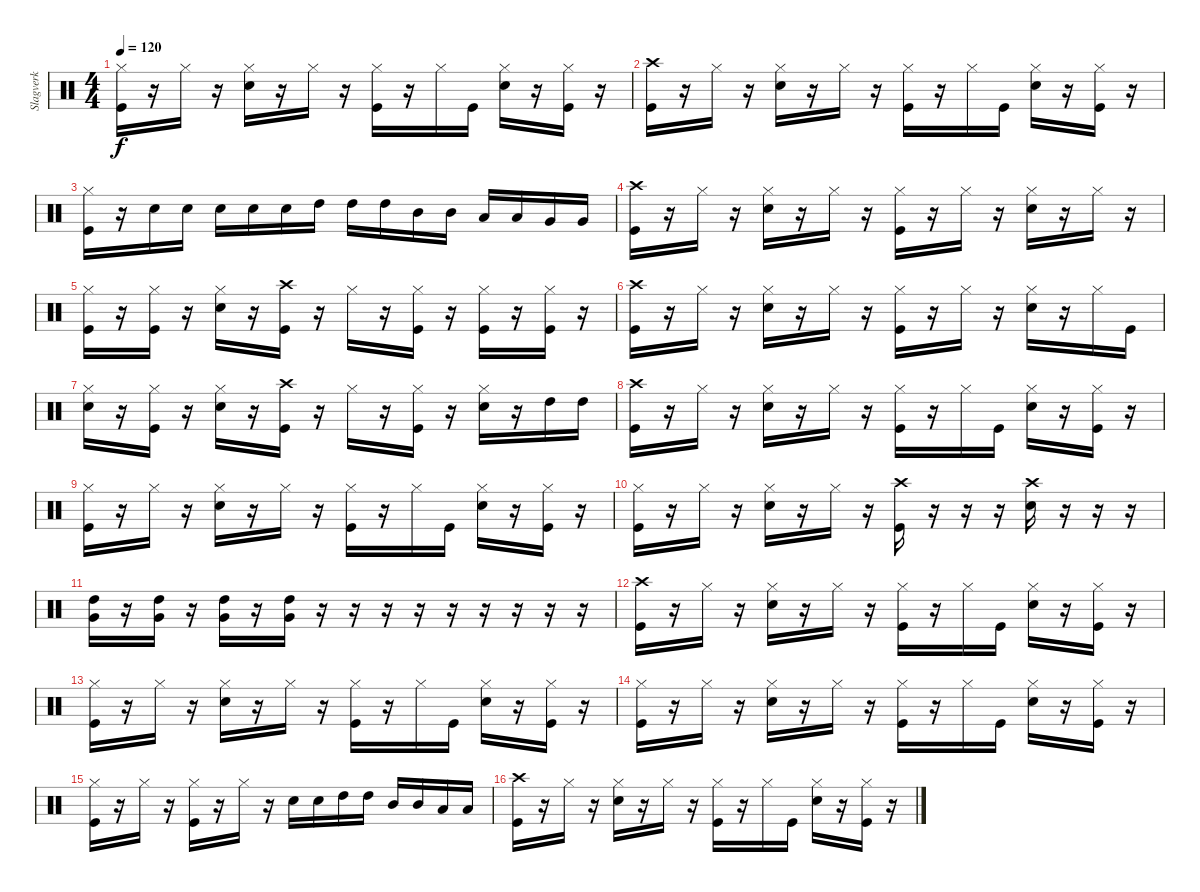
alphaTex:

\track ("Slagverk" "Slagverk") {instrument percussion}
\staff {score}
\articulation defaults
\ts (4 4)
\tempo 120
\clef neutral
\ks c
("Hi-Hat (closed)" "Kick (hit)").16{dy f} r.16 "Hi-Hat (closed)".16 r.16 ("Hi-Hat (closed)" "Snare (hit) 2").16 r.16 "Hi-Hat (closed)".16 r.16 ("Hi-Hat (closed)" "Kick (hit)").16 r.16 "Hi-Hat (closed)".16 "Kick (hit)".16 ("Hi-Hat (closed)" "Snare (hit) 2").16 r.16 ("Hi-Hat (closed)" "Kick (hit)").16 r.16 |
("Crash high (hit)" "Kick (hit)").16 r.16 "Hi-Hat (closed)".16 r.16 ("Hi-Hat (closed)" "Snare (hit) 2").16 r.16 "Hi-Hat (closed)".16 r.16 ("Hi-Hat (closed)" "Kick (hit)").16 r.16 "Hi-Hat (closed)".16 "Kick (hit)".16 ("Hi-Hat (closed)" "Snare (hit) 2").16 r.16 ("Hi-Hat (closed)" "Kick (hit)").16 r.16 |
("Hi-Hat (closed)" "Kick (hit)").16 r.16 "Snare (hit) 2".16 "Snare (hit) 2".16 "Snare (hit) 2".16 "Snare (hit) 2".16 "Snare (hit) 2".16 "High Tom (hit)".16 "High Tom (hit)".16 "High Tom (hit)".16 "Mid Tom (hit)".16 "Mid Tom (hit)".16 "Low Tom (hit)".16 "Low Tom (hit)".16 "Very Low Tom (hit)".16 "Very Low Tom (hit)".16 |
("Crash high (hit)" "Kick (hit)").16 r.16 "Hi-Hat (closed)".16 r.16 ("Hi-Hat (closed)" "Snare (hit) 2").16 r.16 "Hi-Hat (closed)".16 r.16 ("Hi-Hat (closed)" "Kick (hit)").16 r.16 "Hi-Hat (closed)".16 r.16 ("Hi-Hat (closed)" "Snare (hit) 2").16 r.16 "Hi-Hat (closed)".16 r.16 |
("Hi-Hat (closed)" "Kick (hit)").16 r.16 ("Hi-Hat (closed)" "Kick (hit)").16 r.16 ("Hi-Hat (closed)" "Snare (hit) 2").16 r.16 ("Crash high (hit)" "Kick (hit)").16 r.16 "Hi-Hat (closed)".16 r.16 ("Hi-Hat (closed)" "Kick (hit)").16 r.16 ("Hi-Hat (closed)" "Kick (hit)").16 r.16 ("Hi-Hat (closed)" "Kick (hit)").16 r.16 |
("Crash high (hit)" "Kick (hit)").16 r.16 "Hi-Hat (closed)".16 r.16 ("Hi-Hat (closed)" "Snare (hit) 2").16 r.16 "Hi-Hat (closed)".16 r.16 ("Hi-Hat (closed)" "Kick (hit)").16 r.16 "Hi-Hat (closed)".16 r.16 ("Hi-Hat (closed)" "Snare (hit) 2").16 r.16 "Hi-Hat (closed)".16 "Kick (hit)".16 |
("Hi-Hat (closed)" "Snare (hit) 2").16 r.16 ("Hi-Hat (closed)" "Kick (hit)").16 r.16 ("Hi-Hat (closed)" "Snare (hit) 2").16 r.16 ("Crash high (hit)" "Kick (hit)").16 r.16 "Hi-Hat (closed)".16 r.16 ("Hi-Hat (closed)" "Kick (hit)").16 r.16 ("Hi-Hat (closed)" "Snare (hit) 2").16 r.16 "High Tom (hit)".16 "High Tom (hit)".16 |
("Crash high (hit)" "Kick (hit)").16 r.16 "Hi-Hat (closed)".16 r.16 ("Hi-Hat (closed)" "Snare (hit) 2").16 r.16 "Hi-Hat (closed)".16 r.16 ("Hi-Hat (closed)" "Kick (hit)").16 r.16 "Hi-Hat (closed)".16 "Kick (hit)".16 ("Hi-Hat (closed)" "Snare (hit) 2").16 r.16 ("Hi-Hat (closed)" "Kick (hit)").16 r.16 |
("Hi-Hat (closed)" "Kick (hit)").16 r.16 "Hi-Hat (closed)".16 r.16 ("Hi-Hat (closed)" "Snare (hit) 2").16 r.16 "Hi-Hat (closed)".16 r.16 ("Hi-Hat (closed)" "Kick (hit)").16 r.16 "Hi-Hat (closed)".16 "Kick (hit)".16 ("Hi-Hat (closed)" "Snare (hit) 2").16 r.16 ("Hi-Hat (closed)" "Kick (hit)").16 r.16 |
("Hi-Hat (closed)" "Kick (hit)").16 r.16 "Hi-Hat (closed)".16 r.16 ("Hi-Hat (closed)" "Snare (hit) 2").16 r.16 "Hi-Hat (closed)".16 r.16 ("Crash high (hit)" "Kick (hit)").16 r.16 r.16 r.16 ("Crash high (hit)" "Snare (hit) 2").16 r.16 r.16 r.16 |
("Very Low Tom (hit)" "High Tom (hit)").16 r.16 ("Very Low Tom (hit)" "High Tom (hit)").16 r.16 ("Very Low Tom (hit)" "High Tom (hit)").16 r.16 ("Very Low Tom (hit)" "High Tom (hit)").16 r.16 r.16 r.16 r.16 r.16 r.16 r.16 r.16 r.16 |
("Crash high (hit)" "Kick (hit)").16 r.16 "Hi-Hat (closed)".16 r.16 ("Hi-Hat (closed)" "Snare (hit) 2").16 r.16 "Hi-Hat (closed)".16 r.16 ("Hi-Hat (closed)" "Kick (hit)").16 r.16 "Hi-Hat (closed)".16 "Kick (hit)".16 ("Hi-Hat (closed)" "Snare (hit) 2").16 r.16 ("Hi-Hat (closed)" "Kick (hit)").16 r.16 |
("Hi-Hat (closed)" "Kick (hit)").16 r.16 "Hi-Hat (closed)".16 r.16 ("Hi-Hat (closed)" "Snare (hit) 2").16 r.16 "Hi-Hat (closed)".16 r.16 ("Hi-Hat (closed)" "Kick (hit)").16 r.16 "Hi-Hat (closed)".16 "Kick (hit)".16 ("Hi-Hat (closed)" "Snare (hit) 2").16 r.16 ("Hi-Hat (closed)" "Kick (hit)").16 r.16 |
("Hi-Hat (closed)" "Kick (hit)").16 r.16 "Hi-Hat (closed)".16 r.16 ("Hi-Hat (closed)" "Snare (hit) 2").16 r.16 "Hi-Hat (closed)".16 r.16 ("Hi-Hat (closed)" "Kick (hit)").16 r.16 "Hi-Hat (closed)".16 "Kick (hit)".16 ("Hi-Hat (closed)" "Snare (hit) 2").16 r.16 ("Hi-Hat (closed)" "Kick (hit)").16 r.16 |
("Hi-Hat (closed)" "Kick (hit)").16 r.16 "Hi-Hat (closed)".16 r.16 ("Hi-Hat (closed)" "Kick (hit)").16 r.16 "Hi-Hat (closed)".16 r.16 "Snare (hit) 2".16 "Snare (hit) 2".16 "High Tom (hit)".16 "High Tom (hit)".16 "Mid Tom (hit)".16 "Mid Tom (hit)".16 "Low Tom (hit)".16 "Low Tom (hit)".16 |
("Crash high (hit)" "Kick (hit)").16 r.16 "Hi-Hat (closed)".16 r.16 ("Hi-Hat (closed)" "Snare (hit) 2").16 r.16 "Hi-Hat (closed)".16 r.16 ("Hi-Hat (closed)" "Kick (hit)").16 r.16 "Hi-Hat (closed)".16 "Kick (hit)".16 ("Hi-Hat (closed)" "Snare (hit) 2").16 r.16 ("Hi-Hat (closed)" "Kick (hit)").16 r.16
